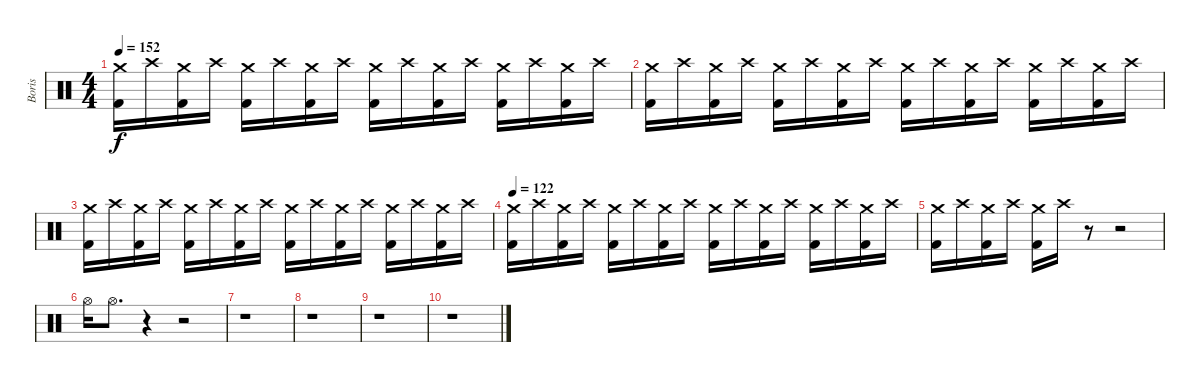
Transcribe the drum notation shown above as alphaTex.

\track ("Boris" "Boris") {instrument percussion}
\staff {score}
\articulation defaults
\ts (4 4)
\tempo 152
\clef neutral
\ks c
("Kick (hit) 2" "Crash medium (hit)").16{dy f} "Crash high (hit)".16 ("Kick (hit) 2" "Crash medium (hit)").16 "Crash high (hit)".16 ("Kick (hit) 2" "Crash medium (hit)").16 "Crash high (hit)".16 ("Kick (hit) 2" "Crash medium (hit)").16 "Crash high (hit)".16 ("Kick (hit) 2" "Crash medium (hit)").16 "Crash high (hit)".16 ("Kick (hit) 2" "Crash medium (hit)").16 "Crash high (hit)".16 ("Kick (hit) 2" "Crash medium (hit)").16 "Crash high (hit)".16 ("Kick (hit) 2" "Crash medium (hit)").16 "Crash high (hit)".16 |
("Kick (hit) 2" "Crash medium (hit)").16 "Crash high (hit)".16 ("Kick (hit) 2" "Crash medium (hit)").16 "Crash high (hit)".16 ("Kick (hit) 2" "Crash medium (hit)").16 "Crash high (hit)".16 ("Kick (hit) 2" "Crash medium (hit)").16 "Crash high (hit)".16 ("Kick (hit) 2" "Crash medium (hit)").16 "Crash high (hit)".16 ("Kick (hit) 2" "Crash medium (hit)").16 "Crash high (hit)".16 ("Kick (hit) 2" "Crash medium (hit)").16 "Crash high (hit)".16 ("Kick (hit) 2" "Crash medium (hit)").16 "Crash high (hit)".16 |
("Kick (hit) 2" "Crash medium (hit)").16 "Crash high (hit)".16 ("Kick (hit) 2" "Crash medium (hit)").16 "Crash high (hit)".16 ("Kick (hit) 2" "Crash medium (hit)").16 "Crash high (hit)".16 ("Kick (hit) 2" "Crash medium (hit)").16 "Crash high (hit)".16 ("Kick (hit) 2" "Crash medium (hit)").16 "Crash high (hit)".16 ("Kick (hit) 2" "Crash medium (hit)").16 "Crash high (hit)".16 ("Kick (hit) 2" "Crash medium (hit)").16 "Crash high (hit)".16 ("Kick (hit) 2" "Crash medium (hit)").16 "Crash high (hit)".16 |
\tempo 122
("Kick (hit) 2" "Crash medium (hit)").16 "Crash high (hit)".16 ("Kick (hit) 2" "Crash medium (hit)").16 "Crash high (hit)".16 ("Kick (hit) 2" "Crash medium (hit)").16 "Crash high (hit)".16 ("Kick (hit) 2" "Crash medium (hit)").16 "Crash high (hit)".16 ("Kick (hit) 2" "Crash medium (hit)").16 "Crash high (hit)".16 ("Kick (hit) 2" "Crash medium (hit)").16 "Crash high (hit)".16 ("Kick (hit) 2" "Crash medium (hit)").16 "Crash high (hit)".16 ("Kick (hit) 2" "Crash medium (hit)").16 "Crash high (hit)".16 |
("Kick (hit) 2" "Crash medium (hit)").16 "Crash high (hit)".16 ("Kick (hit) 2" "Crash medium (hit)").16 "Crash high (hit)".16 ("Kick (hit) 2" "Crash medium (hit)").16 "Crash high (hit)".16 r.8 r.2 |
"Hi-Hat (open)".16 "Hi-Hat (open)".8{d} r.4 r.2 |
r.1 |
r.1 |
r.1 |
r.1
